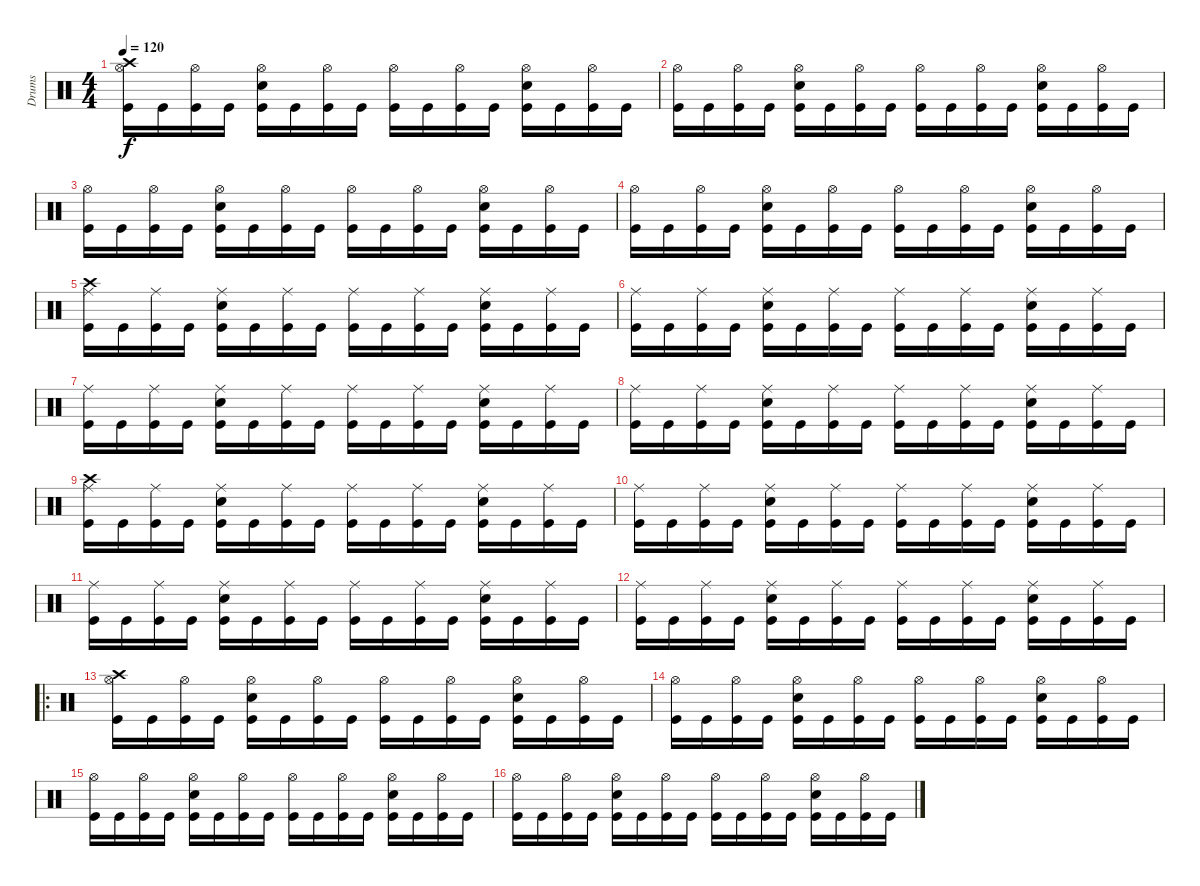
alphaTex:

\track ("Drums" "Drums") {instrument percussion}
\staff {score}
\articulation defaults
\ts (4 4)
\tempo 120
\clef neutral
\ks c
("Hi-Hat (open)" "Crash high (hit)" "Kick (hit)").16{dy f} "Kick (hit)".16 ("Hi-Hat (open)" "Kick (hit)").16 "Kick (hit)".16 ("Hi-Hat (open)" "Electric Snare (hit)" "Kick (hit)").16 "Kick (hit)".16 ("Hi-Hat (open)" "Kick (hit)").16 "Kick (hit)".16 ("Hi-Hat (open)" "Kick (hit)").16 "Kick (hit)".16 ("Hi-Hat (open)" "Kick (hit)").16 "Kick (hit)".16 ("Hi-Hat (open)" "Electric Snare (hit)" "Kick (hit)").16 "Kick (hit)".16 ("Hi-Hat (open)" "Kick (hit)").16 "Kick (hit)".16 |
("Hi-Hat (open)" "Kick (hit)").16 "Kick (hit)".16 ("Hi-Hat (open)" "Kick (hit)").16 "Kick (hit)".16 ("Hi-Hat (open)" "Electric Snare (hit)" "Kick (hit)").16 "Kick (hit)".16 ("Hi-Hat (open)" "Kick (hit)").16 "Kick (hit)".16 ("Hi-Hat (open)" "Kick (hit)").16 "Kick (hit)".16 ("Hi-Hat (open)" "Kick (hit)").16 "Kick (hit)".16 ("Hi-Hat (open)" "Electric Snare (hit)" "Kick (hit)").16 "Kick (hit)".16 ("Hi-Hat (open)" "Kick (hit)").16 "Kick (hit)".16 |
("Hi-Hat (open)" "Kick (hit)").16 "Kick (hit)".16 ("Hi-Hat (open)" "Kick (hit)").16 "Kick (hit)".16 ("Hi-Hat (open)" "Electric Snare (hit)" "Kick (hit)").16 "Kick (hit)".16 ("Hi-Hat (open)" "Kick (hit)").16 "Kick (hit)".16 ("Hi-Hat (open)" "Kick (hit)").16 "Kick (hit)".16 ("Hi-Hat (open)" "Kick (hit)").16 "Kick (hit)".16 ("Hi-Hat (open)" "Electric Snare (hit)" "Kick (hit)").16 "Kick (hit)".16 ("Hi-Hat (open)" "Kick (hit)").16 "Kick (hit)".16 |
("Hi-Hat (open)" "Kick (hit)").16 "Kick (hit)".16 ("Hi-Hat (open)" "Kick (hit)").16 "Kick (hit)".16 ("Hi-Hat (open)" "Electric Snare (hit)" "Kick (hit)").16 "Kick (hit)".16 ("Hi-Hat (open)" "Kick (hit)").16 "Kick (hit)".16 ("Hi-Hat (open)" "Kick (hit)").16 "Kick (hit)".16 ("Hi-Hat (open)" "Kick (hit)").16 "Kick (hit)".16 ("Hi-Hat (open)" "Electric Snare (hit)" "Kick (hit)").16 "Kick (hit)".16 ("Hi-Hat (open)" "Kick (hit)").16 "Kick (hit)".16 |
("Crash high (hit)" "Ride (middle)" "Kick (hit)").16 "Kick (hit)".16 ("Ride (middle)" "Kick (hit)").16 "Kick (hit)".16 ("Ride (middle)" "Electric Snare (hit)" "Kick (hit)").16 "Kick (hit)".16 ("Ride (middle)" "Kick (hit)").16 "Kick (hit)".16 ("Ride (middle)" "Kick (hit)").16 "Kick (hit)".16 ("Ride (middle)" "Kick (hit)").16 "Kick (hit)".16 ("Ride (middle)" "Electric Snare (hit)" "Kick (hit)").16 "Kick (hit)".16 ("Ride (middle)" "Kick (hit)").16 "Kick (hit)".16 |
("Ride (middle)" "Kick (hit)").16 "Kick (hit)".16 ("Ride (middle)" "Kick (hit)").16 "Kick (hit)".16 ("Ride (middle)" "Electric Snare (hit)" "Kick (hit)").16 "Kick (hit)".16 ("Ride (middle)" "Kick (hit)").16 "Kick (hit)".16 ("Ride (middle)" "Kick (hit)").16 "Kick (hit)".16 ("Ride (middle)" "Kick (hit)").16 "Kick (hit)".16 ("Ride (middle)" "Electric Snare (hit)" "Kick (hit)").16 "Kick (hit)".16 ("Ride (middle)" "Kick (hit)").16 "Kick (hit)".16 |
("Ride (middle)" "Kick (hit)").16 "Kick (hit)".16 ("Ride (middle)" "Kick (hit)").16 "Kick (hit)".16 ("Ride (middle)" "Electric Snare (hit)" "Kick (hit)").16 "Kick (hit)".16 ("Ride (middle)" "Kick (hit)").16 "Kick (hit)".16 ("Ride (middle)" "Kick (hit)").16 "Kick (hit)".16 ("Ride (middle)" "Kick (hit)").16 "Kick (hit)".16 ("Ride (middle)" "Electric Snare (hit)" "Kick (hit)").16 "Kick (hit)".16 ("Ride (middle)" "Kick (hit)").16 "Kick (hit)".16 |
("Ride (middle)" "Kick (hit)").16 "Kick (hit)".16 ("Ride (middle)" "Kick (hit)").16 "Kick (hit)".16 ("Ride (middle)" "Electric Snare (hit)" "Kick (hit)").16 "Kick (hit)".16 ("Ride (middle)" "Kick (hit)").16 "Kick (hit)".16 ("Ride (middle)" "Kick (hit)").16 "Kick (hit)".16 ("Ride (middle)" "Kick (hit)").16 "Kick (hit)".16 ("Ride (middle)" "Electric Snare (hit)" "Kick (hit)").16 "Kick (hit)".16 ("Ride (middle)" "Kick (hit)").16 "Kick (hit)".16 |
("Crash high (hit)" "Ride (middle)" "Kick (hit)").16 "Kick (hit)".16 ("Ride (middle)" "Kick (hit)").16 "Kick (hit)".16 ("Ride (middle)" "Electric Snare (hit)" "Kick (hit)").16 "Kick (hit)".16 ("Ride (middle)" "Kick (hit)").16 "Kick (hit)".16 ("Ride (middle)" "Kick (hit)").16 "Kick (hit)".16 ("Ride (middle)" "Kick (hit)").16 "Kick (hit)".16 ("Ride (middle)" "Electric Snare (hit)" "Kick (hit)").16 "Kick (hit)".16 ("Ride (middle)" "Kick (hit)").16 "Kick (hit)".16 |
("Ride (middle)" "Kick (hit)").16 "Kick (hit)".16 ("Ride (middle)" "Kick (hit)").16 "Kick (hit)".16 ("Ride (middle)" "Electric Snare (hit)" "Kick (hit)").16 "Kick (hit)".16 ("Ride (middle)" "Kick (hit)").16 "Kick (hit)".16 ("Ride (middle)" "Kick (hit)").16 "Kick (hit)".16 ("Ride (middle)" "Kick (hit)").16 "Kick (hit)".16 ("Ride (middle)" "Electric Snare (hit)" "Kick (hit)").16 "Kick (hit)".16 ("Ride (middle)" "Kick (hit)").16 "Kick (hit)".16 |
("Ride (middle)" "Kick (hit)").16 "Kick (hit)".16 ("Ride (middle)" "Kick (hit)").16 "Kick (hit)".16 ("Ride (middle)" "Electric Snare (hit)" "Kick (hit)").16 "Kick (hit)".16 ("Ride (middle)" "Kick (hit)").16 "Kick (hit)".16 ("Ride (middle)" "Kick (hit)").16 "Kick (hit)".16 ("Ride (middle)" "Kick (hit)").16 "Kick (hit)".16 ("Ride (middle)" "Electric Snare (hit)" "Kick (hit)").16 "Kick (hit)".16 ("Ride (middle)" "Kick (hit)").16 "Kick (hit)".16 |
("Ride (middle)" "Kick (hit)").16 "Kick (hit)".16 ("Ride (middle)" "Kick (hit)").16 "Kick (hit)".16 ("Ride (middle)" "Electric Snare (hit)" "Kick (hit)").16 "Kick (hit)".16 ("Ride (middle)" "Kick (hit)").16 "Kick (hit)".16 ("Ride (middle)" "Kick (hit)").16 "Kick (hit)".16 ("Ride (middle)" "Kick (hit)").16 "Kick (hit)".16 ("Ride (middle)" "Electric Snare (hit)" "Kick (hit)").16 "Kick (hit)".16 ("Ride (middle)" "Kick (hit)").16 "Kick (hit)".16 |
\ro
("Hi-Hat (open)" "Crash high (hit)" "Kick (hit)").16 "Kick (hit)".16 ("Hi-Hat (open)" "Kick (hit)").16 "Kick (hit)".16 ("Hi-Hat (open)" "Electric Snare (hit)" "Kick (hit)").16 "Kick (hit)".16 ("Hi-Hat (open)" "Kick (hit)").16 "Kick (hit)".16 ("Hi-Hat (open)" "Kick (hit)").16 "Kick (hit)".16 ("Hi-Hat (open)" "Kick (hit)").16 "Kick (hit)".16 ("Hi-Hat (open)" "Electric Snare (hit)" "Kick (hit)").16 "Kick (hit)".16 ("Hi-Hat (open)" "Kick (hit)").16 "Kick (hit)".16 |
("Hi-Hat (open)" "Kick (hit)").16 "Kick (hit)".16 ("Hi-Hat (open)" "Kick (hit)").16 "Kick (hit)".16 ("Hi-Hat (open)" "Electric Snare (hit)" "Kick (hit)").16 "Kick (hit)".16 ("Hi-Hat (open)" "Kick (hit)").16 "Kick (hit)".16 ("Hi-Hat (open)" "Kick (hit)").16 "Kick (hit)".16 ("Hi-Hat (open)" "Kick (hit)").16 "Kick (hit)".16 ("Hi-Hat (open)" "Electric Snare (hit)" "Kick (hit)").16 "Kick (hit)".16 ("Hi-Hat (open)" "Kick (hit)").16 "Kick (hit)".16 |
("Hi-Hat (open)" "Kick (hit)").16 "Kick (hit)".16 ("Hi-Hat (open)" "Kick (hit)").16 "Kick (hit)".16 ("Hi-Hat (open)" "Electric Snare (hit)" "Kick (hit)").16 "Kick (hit)".16 ("Hi-Hat (open)" "Kick (hit)").16 "Kick (hit)".16 ("Hi-Hat (open)" "Kick (hit)").16 "Kick (hit)".16 ("Hi-Hat (open)" "Kick (hit)").16 "Kick (hit)".16 ("Hi-Hat (open)" "Electric Snare (hit)" "Kick (hit)").16 "Kick (hit)".16 ("Hi-Hat (open)" "Kick (hit)").16 "Kick (hit)".16 |
("Hi-Hat (open)" "Kick (hit)").16 "Kick (hit)".16 ("Hi-Hat (open)" "Kick (hit)").16 "Kick (hit)".16 ("Hi-Hat (open)" "Electric Snare (hit)" "Kick (hit)").16 "Kick (hit)".16 ("Hi-Hat (open)" "Kick (hit)").16 "Kick (hit)".16 ("Hi-Hat (open)" "Kick (hit)").16 "Kick (hit)".16 ("Hi-Hat (open)" "Kick (hit)").16 "Kick (hit)".16 ("Hi-Hat (open)" "Electric Snare (hit)" "Kick (hit)").16 "Kick (hit)".16 ("Hi-Hat (open)" "Kick (hit)").16 "Kick (hit)".16
